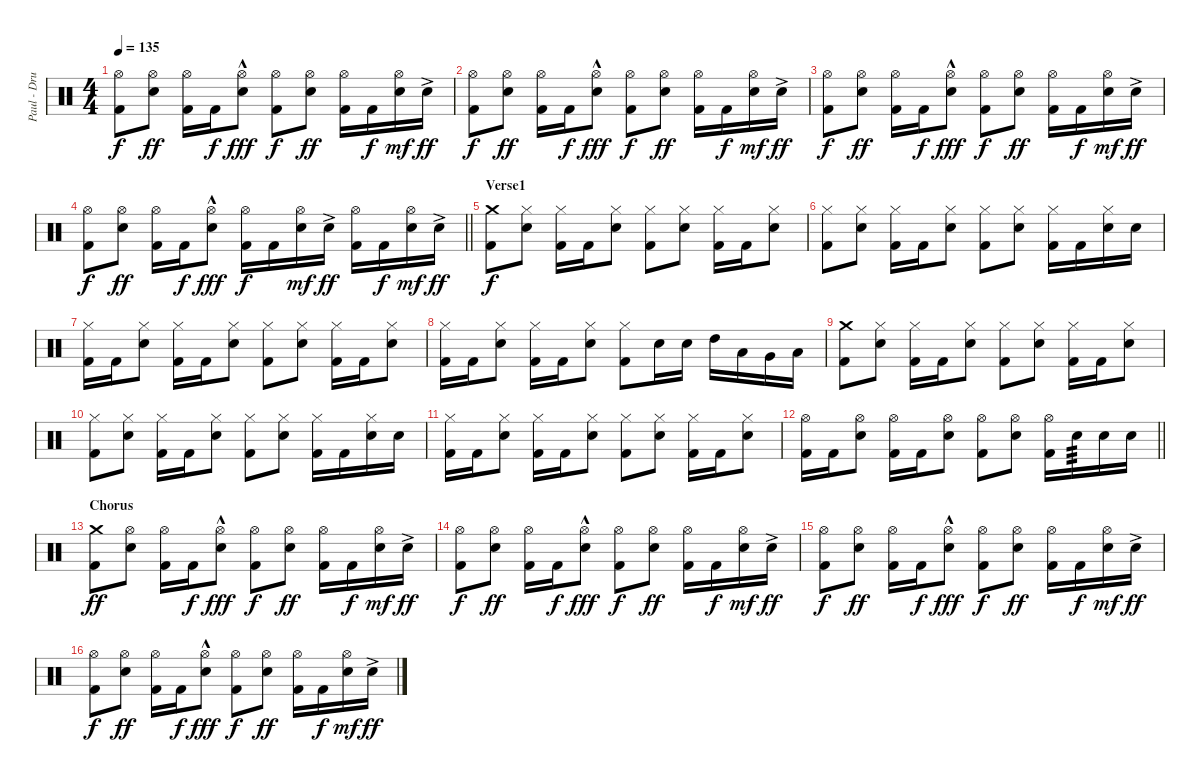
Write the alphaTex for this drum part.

\track ("Paul - Drums" "Paul - Dru") {instrument percussion}
\staff {score}
\articulation defaults
\ts (4 4)
\tempo 135
\clef neutral
\ks c
("Hi-Hat (open)" "Kick (hit) 2").8{dy f} ("Hi-Hat (open)" "Electric Snare (hit)").8{dy ff} ("Hi-Hat (open)" "Kick (hit) 2").16 "Kick (hit) 2".16{dy f} ("Hi-Hat (open)" "Electric Snare (hit)"{hac}).8{dy fff} ("Hi-Hat (open)" "Kick (hit) 2").8{dy f} ("Hi-Hat (open)" "Electric Snare (hit)").8{dy ff} ("Hi-Hat (open)" "Kick (hit) 2").16 "Kick (hit) 2".16{dy f} ("Hi-Hat (open)" "Electric Snare (hit)").16{dy mf} "Electric Snare (hit)"{ac}.16{dy ff} |
("Hi-Hat (open)" "Kick (hit) 2").8{dy f} ("Hi-Hat (open)" "Electric Snare (hit)").8{dy ff} ("Hi-Hat (open)" "Kick (hit) 2").16 "Kick (hit) 2".16{dy f} ("Hi-Hat (open)" "Electric Snare (hit)"{hac}).8{dy fff} ("Hi-Hat (open)" "Kick (hit) 2").8{dy f} ("Hi-Hat (open)" "Electric Snare (hit)").8{dy ff} ("Hi-Hat (open)" "Kick (hit) 2").16 "Kick (hit) 2".16{dy f} ("Hi-Hat (open)" "Electric Snare (hit)").16{dy mf} "Electric Snare (hit)"{ac}.16{dy ff} |
("Hi-Hat (open)" "Kick (hit) 2").8{dy f} ("Hi-Hat (open)" "Electric Snare (hit)").8{dy ff} ("Hi-Hat (open)" "Kick (hit) 2").16 "Kick (hit) 2".16{dy f} ("Hi-Hat (open)" "Electric Snare (hit)"{hac}).8{dy fff} ("Hi-Hat (open)" "Kick (hit) 2").8{dy f} ("Hi-Hat (open)" "Electric Snare (hit)").8{dy ff} ("Hi-Hat (open)" "Kick (hit) 2").16 "Kick (hit) 2".16{dy f} ("Hi-Hat (open)" "Electric Snare (hit)").16{dy mf} "Electric Snare (hit)"{ac}.16{dy ff} |
\barLineRight lightlight
("Hi-Hat (open)" "Kick (hit) 2").8{dy f} ("Hi-Hat (open)" "Electric Snare (hit)").8{dy ff} ("Hi-Hat (open)" "Kick (hit) 2").16 "Kick (hit) 2".16{dy f} ("Hi-Hat (open)" "Electric Snare (hit)"{hac}).8{dy fff} ("Hi-Hat (open)" "Kick (hit) 2").16{dy f} "Kick (hit) 2".16 ("Hi-Hat (open)" "Electric Snare (hit)").16{dy mf} "Electric Snare (hit)"{ac}.16{dy ff} ("Hi-Hat (open)" "Kick (hit) 2").16 "Kick (hit) 2".16{dy f} ("Hi-Hat (open)" "Electric Snare (hit)").16{dy mf} "Electric Snare (hit)"{ac}.16{dy ff} |
\section ("" "Verse1")
("Crash medium (hit)" "Kick (hit) 2").8{dy f} ("Hi-Hat (closed)" "Electric Snare (hit)").8 ("Hi-Hat (closed)" "Kick (hit) 2").16 "Kick (hit) 2".16 ("Hi-Hat (closed)" "Electric Snare (hit)").8 ("Hi-Hat (closed)" "Kick (hit) 2").8 ("Hi-Hat (closed)" "Electric Snare (hit)").8 ("Hi-Hat (closed)" "Kick (hit) 2").16 "Kick (hit) 2".16 ("Hi-Hat (closed)" "Electric Snare (hit)").8 |
("Hi-Hat (closed)" "Kick (hit) 2").8 ("Hi-Hat (closed)" "Electric Snare (hit)").8 ("Hi-Hat (closed)" "Kick (hit) 2").16 "Kick (hit) 2".16 ("Hi-Hat (closed)" "Electric Snare (hit)").8 ("Hi-Hat (closed)" "Kick (hit) 2").8 ("Hi-Hat (closed)" "Electric Snare (hit)").8 ("Hi-Hat (closed)" "Kick (hit) 2").16 "Kick (hit) 2".16 ("Hi-Hat (closed)" "Electric Snare (hit)").16 "Electric Snare (hit)".16 |
("Hi-Hat (closed)" "Kick (hit) 2").16 "Kick (hit) 2".16 ("Hi-Hat (closed)" "Electric Snare (hit)").8 ("Hi-Hat (closed)" "Kick (hit) 2").16 "Kick (hit) 2".16 ("Hi-Hat (closed)" "Electric Snare (hit)").8 ("Hi-Hat (closed)" "Kick (hit) 2").8 ("Hi-Hat (closed)" "Electric Snare (hit)").8 ("Hi-Hat (closed)" "Kick (hit) 2").16 "Kick (hit) 2".16 ("Hi-Hat (closed)" "Electric Snare (hit)").8 |
("Hi-Hat (closed)" "Kick (hit) 2").16 "Kick (hit) 2".16 ("Hi-Hat (closed)" "Electric Snare (hit)").8 ("Hi-Hat (closed)" "Kick (hit) 2").16 "Kick (hit) 2".16 ("Hi-Hat (closed)" "Electric Snare (hit)").8 ("Hi-Hat (closed)" "Kick (hit) 2").8 "Electric Snare (hit)".16 "Electric Snare (hit)".16 "High Tom (hit)".16 "Low Tom (hit)".16 "Very Low Tom (hit)".16 "Low Floor Tom (hit)".16 |
("Crash medium (hit)" "Kick (hit) 2").8 ("Hi-Hat (closed)" "Electric Snare (hit)").8 ("Hi-Hat (closed)" "Kick (hit) 2").16 "Kick (hit) 2".16 ("Hi-Hat (closed)" "Electric Snare (hit)").8 ("Hi-Hat (closed)" "Kick (hit) 2").8 ("Hi-Hat (closed)" "Electric Snare (hit)").8 ("Hi-Hat (closed)" "Kick (hit) 2").16 "Kick (hit) 2".16 ("Hi-Hat (closed)" "Electric Snare (hit)").8 |
("Hi-Hat (closed)" "Kick (hit) 2").8 ("Hi-Hat (closed)" "Electric Snare (hit)").8 ("Hi-Hat (closed)" "Kick (hit) 2").16 "Kick (hit) 2".16 ("Hi-Hat (closed)" "Electric Snare (hit)").8 ("Hi-Hat (closed)" "Kick (hit) 2").8 ("Hi-Hat (closed)" "Electric Snare (hit)").8 ("Hi-Hat (closed)" "Kick (hit) 2").16 "Kick (hit) 2".16 ("Hi-Hat (closed)" "Electric Snare (hit)").16 "Electric Snare (hit)".16 |
("Hi-Hat (closed)" "Kick (hit) 2").16 "Kick (hit) 2".16 ("Hi-Hat (closed)" "Electric Snare (hit)").8 ("Hi-Hat (closed)" "Kick (hit) 2").16 "Kick (hit) 2".16 ("Hi-Hat (closed)" "Electric Snare (hit)").8 ("Hi-Hat (closed)" "Kick (hit) 2").8 ("Hi-Hat (closed)" "Electric Snare (hit)").8 ("Hi-Hat (closed)" "Kick (hit) 2").16 "Kick (hit) 2".16 ("Hi-Hat (closed)" "Electric Snare (hit)").8 |
\barLineRight lightlight
("Hi-Hat (open)" "Kick (hit) 2").16 "Kick (hit) 2".16 ("Hi-Hat (open)" "Electric Snare (hit)").8 ("Hi-Hat (open)" "Kick (hit) 2").16 "Kick (hit) 2".16 ("Hi-Hat (open)" "Electric Snare (hit)").8 ("Hi-Hat (open)" "Kick (hit) 2").8 ("Hi-Hat (open)" "Electric Snare (hit)").8 ("Hi-Hat (open)" "Kick (hit) 2").16 "Electric Snare (hit)".16{tp 3} "Electric Snare (hit)".16 "Electric Snare (hit)".16 |
\section ("" "Chorus")
("Crash medium (hit)" "Kick (hit) 2").8{dy ff} ("Hi-Hat (open)" "Electric Snare (hit)").8 ("Hi-Hat (open)" "Kick (hit) 2").16 "Kick (hit) 2".16{dy f} ("Hi-Hat (open)" "Electric Snare (hit)"{hac}).8{dy fff} ("Hi-Hat (open)" "Kick (hit) 2").8{dy f} ("Hi-Hat (open)" "Electric Snare (hit)").8{dy ff} ("Hi-Hat (open)" "Kick (hit) 2").16 "Kick (hit) 2".16{dy f} ("Hi-Hat (open)" "Electric Snare (hit)").16{dy mf} "Electric Snare (hit)"{ac}.16{dy ff} |
("Hi-Hat (open)" "Kick (hit) 2").8{dy f} ("Hi-Hat (open)" "Electric Snare (hit)").8{dy ff} ("Hi-Hat (open)" "Kick (hit) 2").16 "Kick (hit) 2".16{dy f} ("Hi-Hat (open)" "Electric Snare (hit)"{hac}).8{dy fff} ("Hi-Hat (open)" "Kick (hit) 2").8{dy f} ("Hi-Hat (open)" "Electric Snare (hit)").8{dy ff} ("Hi-Hat (open)" "Kick (hit) 2").16 "Kick (hit) 2".16{dy f} ("Hi-Hat (open)" "Electric Snare (hit)").16{dy mf} "Electric Snare (hit)"{ac}.16{dy ff} |
("Hi-Hat (open)" "Kick (hit) 2").8{dy f} ("Hi-Hat (open)" "Electric Snare (hit)").8{dy ff} ("Hi-Hat (open)" "Kick (hit) 2").16 "Kick (hit) 2".16{dy f} ("Hi-Hat (open)" "Electric Snare (hit)"{hac}).8{dy fff} ("Hi-Hat (open)" "Kick (hit) 2").8{dy f} ("Hi-Hat (open)" "Electric Snare (hit)").8{dy ff} ("Hi-Hat (open)" "Kick (hit) 2").16 "Kick (hit) 2".16{dy f} ("Hi-Hat (open)" "Electric Snare (hit)").16{dy mf} "Electric Snare (hit)"{ac}.16{dy ff} |
("Hi-Hat (open)" "Kick (hit) 2").8{dy f} ("Hi-Hat (open)" "Electric Snare (hit)").8{dy ff} ("Hi-Hat (open)" "Kick (hit) 2").16 "Kick (hit) 2".16{dy f} ("Hi-Hat (open)" "Electric Snare (hit)"{hac}).8{dy fff} ("Hi-Hat (open)" "Kick (hit) 2").8{dy f} ("Hi-Hat (open)" "Electric Snare (hit)").8{dy ff} ("Hi-Hat (open)" "Kick (hit) 2").16 "Kick (hit) 2".16{dy f} ("Hi-Hat (open)" "Electric Snare (hit)").16{dy mf} "Electric Snare (hit)"{ac}.16{dy ff}
